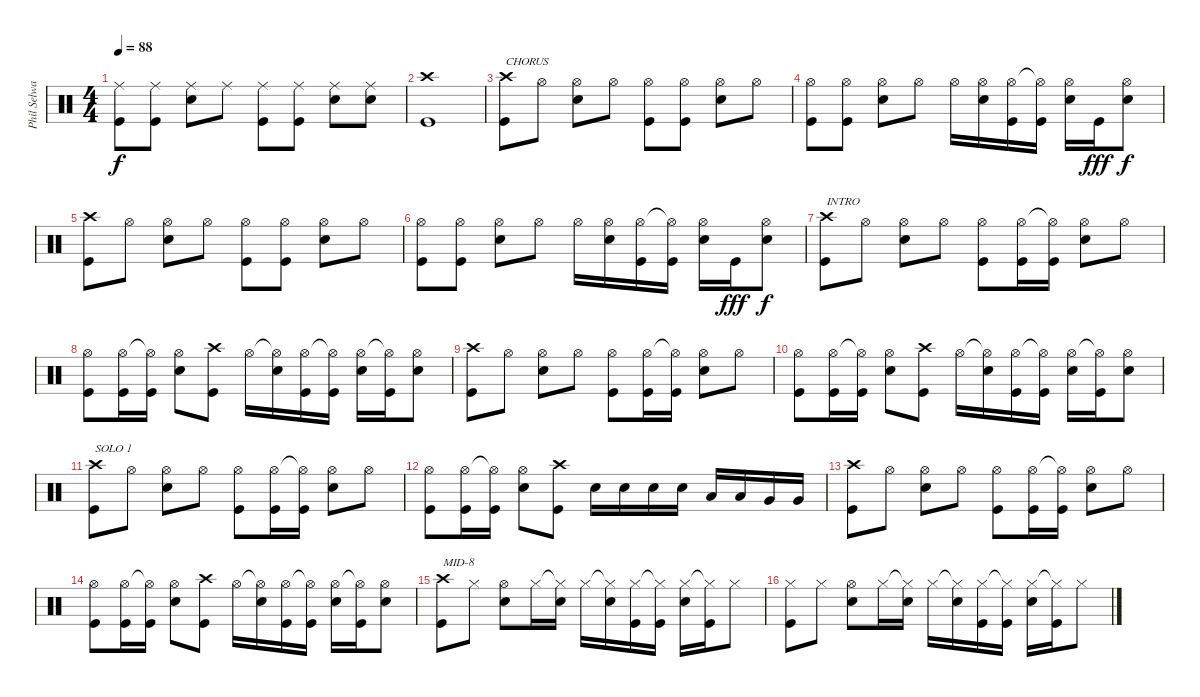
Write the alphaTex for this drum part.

\track ("Phil Selway" "Phil Selwa") {instrument percussion}
\staff {score}
\articulation defaults
\ts (4 4)
\tempo 88
\clef neutral
\ks c
("Ride (middle)" "Kick (hit)").8{dy f} ("Ride (middle)" "Kick (hit)").8 ("Ride (middle)" "Snare (hit) 2").8 "Ride (middle)".8 ("Ride (middle)" "Kick (hit)").8 ("Ride (middle)" "Kick (hit)").8 ("Ride (middle)" "Snare (hit) 2").8 ("Ride (middle)" "Snare (hit) 2").8 |
("Crash high (hit)" "Kick (hit)").1 |
("Crash high (hit)" "Kick (hit)").8{txt "CHORUS"} "Hi-Hat (open)".8 ("Hi-Hat (open)" "Snare (hit) 2").8 "Hi-Hat (open)".8 ("Hi-Hat (open)" "Kick (hit)").8 ("Hi-Hat (open)" "Kick (hit)").8 ("Hi-Hat (open)" "Snare (hit) 2").8 "Hi-Hat (open)".8 |
("Hi-Hat (open)" "Kick (hit)").8 ("Hi-Hat (open)" "Kick (hit)").8 ("Hi-Hat (open)" "Snare (hit) 2").8 "Hi-Hat (open)".8 "Hi-Hat (open)".16 ("Hi-Hat (open)" "Snare (hit) 2").16 ("Hi-Hat (open)" "Kick (hit)").16 ("Hi-Hat (open)"{t} "Kick (hit)").16 ("Hi-Hat (open)" "Snare (hit) 2").16 "Kick (hit)".16{dy fff} ("Hi-Hat (open)" "Snare (hit) 2").8{dy f} |
("Crash high (hit)" "Kick (hit)").8 "Hi-Hat (open)".8 ("Hi-Hat (open)" "Snare (hit) 2").8 "Hi-Hat (open)".8 ("Hi-Hat (open)" "Kick (hit)").8 ("Hi-Hat (open)" "Kick (hit)").8 ("Hi-Hat (open)" "Snare (hit) 2").8 "Hi-Hat (open)".8 |
("Hi-Hat (open)" "Kick (hit)").8 ("Hi-Hat (open)" "Kick (hit)").8 ("Hi-Hat (open)" "Snare (hit) 2").8 "Hi-Hat (open)".8 "Hi-Hat (open)".16 ("Hi-Hat (open)" "Snare (hit) 2").16 ("Hi-Hat (open)" "Kick (hit)").16 ("Hi-Hat (open)"{t} "Kick (hit)").16 ("Hi-Hat (open)" "Snare (hit) 2").16 "Kick (hit)".16{dy fff} ("Hi-Hat (open)" "Snare (hit) 2").8{dy f} |
("Crash high (hit)" "Kick (hit)").8{txt "INTRO"} "Hi-Hat (open)".8 ("Hi-Hat (open)" "Snare (hit) 2").8 "Hi-Hat (open)".8 ("Hi-Hat (open)" "Kick (hit)").8 ("Hi-Hat (open)" "Kick (hit)").16 ("Hi-Hat (open)"{t} "Kick (hit)").16 ("Hi-Hat (open)" "Snare (hit) 2").8 "Hi-Hat (open)".8 |
("Hi-Hat (open)" "Kick (hit)").8 ("Hi-Hat (open)" "Kick (hit)").16 ("Hi-Hat (open)"{t} "Kick (hit)").16 ("Hi-Hat (open)" "Snare (hit) 2").8 ("Crash high (hit)" "Kick (hit)").8 "Hi-Hat (open)".16 ("Hi-Hat (open)"{t} "Snare (hit) 2").16 ("Hi-Hat (open)" "Kick (hit)").16 ("Hi-Hat (open)"{t} "Kick (hit)").16 ("Hi-Hat (open)" "Snare (hit) 2").16 ("Hi-Hat (open)"{t} "Kick (hit)").16 ("Hi-Hat (open)" "Snare (hit) 2").8 |
("Crash high (hit)" "Kick (hit)").8 "Hi-Hat (open)".8 ("Hi-Hat (open)" "Snare (hit) 2").8 "Hi-Hat (open)".8 ("Hi-Hat (open)" "Kick (hit)").8 ("Hi-Hat (open)" "Kick (hit)").16 ("Hi-Hat (open)"{t} "Kick (hit)").16 ("Hi-Hat (open)" "Snare (hit) 2").8 "Hi-Hat (open)".8 |
("Hi-Hat (open)" "Kick (hit)").8 ("Hi-Hat (open)" "Kick (hit)").16 ("Hi-Hat (open)"{t} "Kick (hit)").16 ("Hi-Hat (open)" "Snare (hit) 2").8 ("Crash high (hit)" "Kick (hit)").8 "Hi-Hat (open)".16 ("Hi-Hat (open)"{t} "Snare (hit) 2").16 ("Hi-Hat (open)" "Kick (hit)").16 ("Hi-Hat (open)"{t} "Kick (hit)").16 ("Hi-Hat (open)" "Snare (hit) 2").16 ("Hi-Hat (open)"{t} "Kick (hit)").16 ("Hi-Hat (open)" "Snare (hit) 2").8 |
("Crash high (hit)" "Kick (hit)").8{txt "SOLO 1"} "Hi-Hat (open)".8 ("Hi-Hat (open)" "Snare (hit) 2").8 "Hi-Hat (open)".8 ("Hi-Hat (open)" "Kick (hit)").8 ("Hi-Hat (open)" "Kick (hit)").16 ("Hi-Hat (open)"{t} "Kick (hit)").16 ("Hi-Hat (open)" "Snare (hit) 2").8 "Hi-Hat (open)".8 |
("Hi-Hat (open)" "Kick (hit)").8 ("Hi-Hat (open)" "Kick (hit)").16 ("Hi-Hat (open)"{t} "Kick (hit)").16 ("Hi-Hat (open)" "Snare (hit) 2").8 ("Crash high (hit)" "Kick (hit)").8 "Snare (hit) 2".16 "Snare (hit) 2".16 "Snare (hit) 2".16 "Snare (hit) 2".16 "Low Tom (hit)".16 "Low Tom (hit)".16 "Very Low Tom (hit)".16 "Very Low Tom (hit)".16 |
("Crash high (hit)" "Kick (hit)").8 "Hi-Hat (open)".8 ("Hi-Hat (open)" "Snare (hit) 2").8 "Hi-Hat (open)".8 ("Hi-Hat (open)" "Kick (hit)").8 ("Hi-Hat (open)" "Kick (hit)").16 ("Hi-Hat (open)"{t} "Kick (hit)").16 ("Hi-Hat (open)" "Snare (hit) 2").8 "Hi-Hat (open)".8 |
("Hi-Hat (open)" "Kick (hit)").8 ("Hi-Hat (open)" "Kick (hit)").16 ("Hi-Hat (open)"{t} "Kick (hit)").16 ("Hi-Hat (open)" "Snare (hit) 2").8 ("Crash high (hit)" "Kick (hit)").8 "Hi-Hat (open)".16 ("Hi-Hat (open)"{t} "Snare (hit) 2").16 ("Hi-Hat (open)" "Kick (hit)").16 ("Hi-Hat (open)"{t} "Kick (hit)").16 ("Hi-Hat (open)" "Snare (hit) 2").16 ("Hi-Hat (open)"{t} "Kick (hit)").16 ("Hi-Hat (open)" "Snare (hit) 2").8 |
("Crash high (hit)" "Kick (hit)").8{txt "MID-8"} "Hi-Hat (closed)".8 ("Hi-Hat (open)" "Snare (hit) 2").8 "Hi-Hat (closed)".16 ("Hi-Hat (closed)"{t} "Snare (hit) 2").16 "Hi-Hat (closed)".16 ("Hi-Hat (closed)"{t} "Snare (hit) 2").16 ("Hi-Hat (closed)" "Kick (hit)").16 ("Hi-Hat (closed)"{t} "Kick (hit)").16 ("Hi-Hat (closed)" "Snare (hit) 2").16 ("Hi-Hat (closed)"{t} "Kick (hit)").16 "Hi-Hat (closed)".8 |
("Hi-Hat (closed)" "Kick (hit)").8 "Hi-Hat (closed)".8 ("Hi-Hat (open)" "Snare (hit) 2").8 "Hi-Hat (closed)".16 ("Hi-Hat (closed)"{t} "Snare (hit) 2").16 "Hi-Hat (closed)".16 ("Hi-Hat (closed)"{t} "Snare (hit) 2").16 ("Hi-Hat (closed)" "Kick (hit)").16 ("Hi-Hat (closed)"{t} "Kick (hit)").16 ("Hi-Hat (closed)" "Snare (hit) 2").16 ("Hi-Hat (closed)"{t} "Kick (hit)").16 "Hi-Hat (closed)".8
